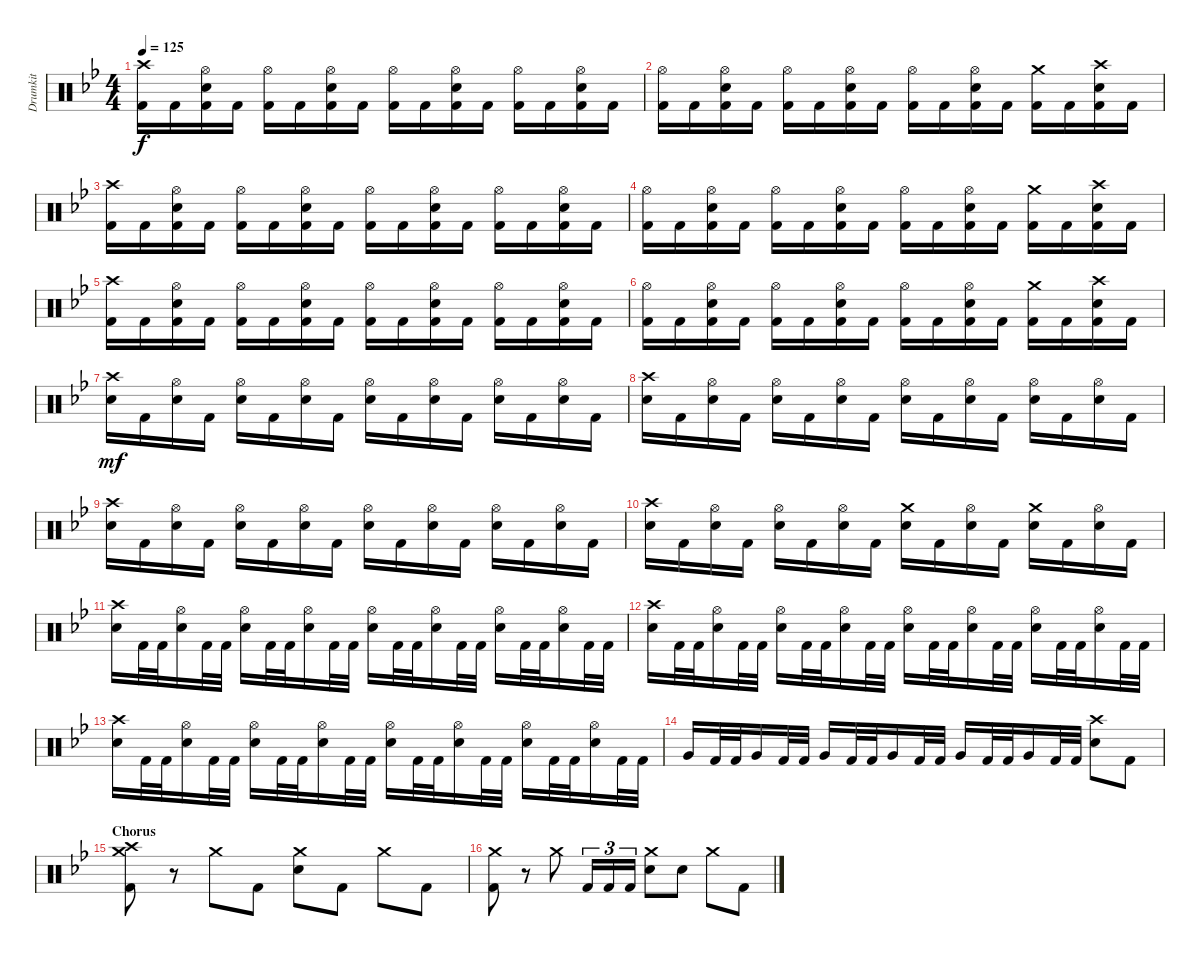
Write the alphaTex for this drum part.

\track ("Drumkit" "Drumkit") {instrument percussion}
\staff {score}
\articulation defaults
\ts (4 4)
\tempo 125
\clef neutral
\ks bb
("Crash high (hit)" "Kick (hit) 2").16{dy f} "Kick (hit) 2".16 ("Hi-Hat (open)" "Snare (hit) 2" "Kick (hit) 2").16 "Kick (hit) 2".16 ("Hi-Hat (open)" "Kick (hit) 2").16 "Kick (hit) 2".16 ("Hi-Hat (open)" "Snare (hit) 2" "Kick (hit) 2").16 "Kick (hit) 2".16 ("Hi-Hat (open)" "Kick (hit) 2").16 "Kick (hit) 2".16 ("Hi-Hat (open)" "Snare (hit) 2" "Kick (hit) 2").16 "Kick (hit) 2".16 ("Hi-Hat (open)" "Kick (hit) 2").16 "Kick (hit) 2".16 ("Hi-Hat (open)" "Snare (hit) 2" "Kick (hit) 2").16 "Kick (hit) 2".16 |
("Hi-Hat (open)" "Kick (hit) 2").16 "Kick (hit) 2".16 ("Hi-Hat (open)" "Snare (hit) 2" "Kick (hit) 2").16 "Kick (hit) 2".16 ("Hi-Hat (open)" "Kick (hit) 2").16 "Kick (hit) 2".16 ("Hi-Hat (open)" "Snare (hit) 2" "Kick (hit) 2").16 "Kick (hit) 2".16 ("Hi-Hat (open)" "Kick (hit) 2").16 "Kick (hit) 2".16 ("Hi-Hat (open)" "Snare (hit) 2" "Kick (hit) 2").16 "Kick (hit) 2".16 ("Crash medium (hit)" "Kick (hit) 2").16 "Kick (hit) 2".16 ("Crash high (hit)" "Snare (hit) 2" "Kick (hit) 2").16 "Kick (hit) 2".16 |
("Crash high (hit)" "Kick (hit) 2").16 "Kick (hit) 2".16 ("Hi-Hat (open)" "Snare (hit) 2" "Kick (hit) 2").16 "Kick (hit) 2".16 ("Hi-Hat (open)" "Kick (hit) 2").16 "Kick (hit) 2".16 ("Hi-Hat (open)" "Snare (hit) 2" "Kick (hit) 2").16 "Kick (hit) 2".16 ("Hi-Hat (open)" "Kick (hit) 2").16 "Kick (hit) 2".16 ("Hi-Hat (open)" "Snare (hit) 2" "Kick (hit) 2").16 "Kick (hit) 2".16 ("Hi-Hat (open)" "Kick (hit) 2").16 "Kick (hit) 2".16 ("Hi-Hat (open)" "Snare (hit) 2" "Kick (hit) 2").16 "Kick (hit) 2".16 |
("Hi-Hat (open)" "Kick (hit) 2").16 "Kick (hit) 2".16 ("Hi-Hat (open)" "Snare (hit) 2" "Kick (hit) 2").16 "Kick (hit) 2".16 ("Hi-Hat (open)" "Kick (hit) 2").16 "Kick (hit) 2".16 ("Hi-Hat (open)" "Snare (hit) 2" "Kick (hit) 2").16 "Kick (hit) 2".16 ("Hi-Hat (open)" "Kick (hit) 2").16 "Kick (hit) 2".16 ("Hi-Hat (open)" "Snare (hit) 2" "Kick (hit) 2").16 "Kick (hit) 2".16 ("Crash medium (hit)" "Kick (hit) 2").16 "Kick (hit) 2".16 ("Crash high (hit)" "Snare (hit) 2" "Kick (hit) 2").16 "Kick (hit) 2".16 |
("Crash high (hit)" "Kick (hit) 2").16 "Kick (hit) 2".16 ("Hi-Hat (open)" "Snare (hit) 2" "Kick (hit) 2").16 "Kick (hit) 2".16 ("Hi-Hat (open)" "Kick (hit) 2").16 "Kick (hit) 2".16 ("Hi-Hat (open)" "Snare (hit) 2" "Kick (hit) 2").16 "Kick (hit) 2".16 ("Hi-Hat (open)" "Kick (hit) 2").16 "Kick (hit) 2".16 ("Hi-Hat (open)" "Snare (hit) 2" "Kick (hit) 2").16 "Kick (hit) 2".16 ("Hi-Hat (open)" "Kick (hit) 2").16 "Kick (hit) 2".16 ("Hi-Hat (open)" "Snare (hit) 2" "Kick (hit) 2").16 "Kick (hit) 2".16 |
("Hi-Hat (open)" "Kick (hit) 2").16 "Kick (hit) 2".16 ("Hi-Hat (open)" "Snare (hit) 2" "Kick (hit) 2").16 "Kick (hit) 2".16 ("Hi-Hat (open)" "Kick (hit) 2").16 "Kick (hit) 2".16 ("Hi-Hat (open)" "Snare (hit) 2" "Kick (hit) 2").16 "Kick (hit) 2".16 ("Hi-Hat (open)" "Kick (hit) 2").16 "Kick (hit) 2".16 ("Hi-Hat (open)" "Snare (hit) 2" "Kick (hit) 2").16 "Kick (hit) 2".16 ("Crash medium (hit)" "Kick (hit) 2").16 "Kick (hit) 2".16 ("Crash high (hit)" "Snare (hit) 2" "Kick (hit) 2").16 "Kick (hit) 2".16 |
("Crash high (hit)" "Snare (hit) 2").16{dy mf} "Kick (hit) 2".16 ("Hi-Hat (open)" "Snare (hit) 2").16 "Kick (hit) 2".16 ("Hi-Hat (open)" "Snare (hit) 2").16 "Kick (hit) 2".16 ("Hi-Hat (open)" "Snare (hit) 2").16 "Kick (hit) 2".16 ("Hi-Hat (open)" "Snare (hit) 2").16 "Kick (hit) 2".16 ("Hi-Hat (open)" "Snare (hit) 2").16 "Kick (hit) 2".16 ("Hi-Hat (open)" "Snare (hit) 2").16 "Kick (hit) 2".16 ("Hi-Hat (open)" "Snare (hit) 2").16 "Kick (hit) 2".16 |
("Crash high (hit)" "Snare (hit) 2").16 "Kick (hit) 2".16 ("Hi-Hat (open)" "Snare (hit) 2").16 "Kick (hit) 2".16 ("Hi-Hat (open)" "Snare (hit) 2").16 "Kick (hit) 2".16 ("Hi-Hat (open)" "Snare (hit) 2").16 "Kick (hit) 2".16 ("Hi-Hat (open)" "Snare (hit) 2").16 "Kick (hit) 2".16 ("Hi-Hat (open)" "Snare (hit) 2").16 "Kick (hit) 2".16 ("Hi-Hat (open)" "Snare (hit) 2").16 "Kick (hit) 2".16 ("Hi-Hat (open)" "Snare (hit) 2").16 "Kick (hit) 2".16 |
("Crash high (hit)" "Snare (hit) 2").16 "Kick (hit) 2".16 ("Hi-Hat (open)" "Snare (hit) 2").16 "Kick (hit) 2".16 ("Hi-Hat (open)" "Snare (hit) 2").16 "Kick (hit) 2".16 ("Hi-Hat (open)" "Snare (hit) 2").16 "Kick (hit) 2".16 ("Hi-Hat (open)" "Snare (hit) 2").16 "Kick (hit) 2".16 ("Hi-Hat (open)" "Snare (hit) 2").16 "Kick (hit) 2".16 ("Hi-Hat (open)" "Snare (hit) 2").16 "Kick (hit) 2".16 ("Hi-Hat (open)" "Snare (hit) 2").16 "Kick (hit) 2".16 |
("Crash high (hit)" "Snare (hit) 2").16 "Kick (hit) 2".16 ("Hi-Hat (open)" "Snare (hit) 2").16 "Kick (hit) 2".16 ("Hi-Hat (open)" "Snare (hit) 2").16 "Kick (hit) 2".16 ("Hi-Hat (open)" "Snare (hit) 2").16 "Kick (hit) 2".16 ("Crash medium (hit)" "Snare (hit) 2").16 "Kick (hit) 2".16 ("Hi-Hat (open)" "Snare (hit) 2").16 "Kick (hit) 2".16 ("Crash medium (hit)" "Snare (hit) 2").16 "Kick (hit) 2".16 ("Hi-Hat (open)" "Snare (hit) 2").16 "Kick (hit) 2".16 |
("Crash high (hit)" "Snare (hit) 2").16 "Kick (hit) 2".32 "Kick (hit) 2".32 ("Hi-Hat (open)" "Snare (hit) 2").16 "Kick (hit) 2".32 "Kick (hit) 2".32 ("Hi-Hat (open)" "Snare (hit) 2").16 "Kick (hit) 2".32 "Kick (hit) 2".32 ("Hi-Hat (open)" "Snare (hit) 2").16 "Kick (hit) 2".32 "Kick (hit) 2".32 ("Hi-Hat (open)" "Snare (hit) 2").16 "Kick (hit) 2".32 "Kick (hit) 2".32 ("Hi-Hat (open)" "Snare (hit) 2").16 "Kick (hit) 2".32 "Kick (hit) 2".32 ("Hi-Hat (open)" "Snare (hit) 2").16 "Kick (hit) 2".32 "Kick (hit) 2".32 ("Hi-Hat (open)" "Snare (hit) 2").16 "Kick (hit) 2".32 "Kick (hit) 2".32 |
("Crash high (hit)" "Snare (hit) 2").16 "Kick (hit) 2".32 "Kick (hit) 2".32 ("Hi-Hat (open)" "Snare (hit) 2").16 "Kick (hit) 2".32 "Kick (hit) 2".32 ("Hi-Hat (open)" "Snare (hit) 2").16 "Kick (hit) 2".32 "Kick (hit) 2".32 ("Hi-Hat (open)" "Snare (hit) 2").16 "Kick (hit) 2".32 "Kick (hit) 2".32 ("Hi-Hat (open)" "Snare (hit) 2").16 "Kick (hit) 2".32 "Kick (hit) 2".32 ("Hi-Hat (open)" "Snare (hit) 2").16 "Kick (hit) 2".32 "Kick (hit) 2".32 ("Hi-Hat (open)" "Snare (hit) 2").16 "Kick (hit) 2".32 "Kick (hit) 2".32 ("Hi-Hat (open)" "Snare (hit) 2").16 "Kick (hit) 2".32 "Kick (hit) 2".32 |
("Crash high (hit)" "Snare (hit) 2").16 "Kick (hit) 2".32 "Kick (hit) 2".32 ("Hi-Hat (open)" "Snare (hit) 2").16 "Kick (hit) 2".32 "Kick (hit) 2".32 ("Hi-Hat (open)" "Snare (hit) 2").16 "Kick (hit) 2".32 "Kick (hit) 2".32 ("Hi-Hat (open)" "Snare (hit) 2").16 "Kick (hit) 2".32 "Kick (hit) 2".32 ("Hi-Hat (open)" "Snare (hit) 2").16 "Kick (hit) 2".32 "Kick (hit) 2".32 ("Hi-Hat (open)" "Snare (hit) 2").16 "Kick (hit) 2".32 "Kick (hit) 2".32 ("Hi-Hat (open)" "Snare (hit) 2").16 "Kick (hit) 2".32 "Kick (hit) 2".32 ("Hi-Hat (open)" "Snare (hit) 2").16 "Kick (hit) 2".32 "Kick (hit) 2".32 |
"Very Low Tom (hit)".16 "Kick (hit) 2".32 "Kick (hit) 2".32 "Very Low Tom (hit)".16 "Kick (hit) 2".32 "Kick (hit) 2".32 "Very Low Tom (hit)".16 "Kick (hit) 2".32 "Kick (hit) 2".32 "Very Low Tom (hit)".16 "Kick (hit) 2".32 "Kick (hit) 2".32 "Very Low Tom (hit)".16 "Kick (hit) 2".32 "Kick (hit) 2".32 "Very Low Tom (hit)".16 "Kick (hit) 2".32 "Kick (hit) 2".32 ("Crash high (hit)" "Snare (hit) 2").8 "Kick (hit) 2".8 |
\section ("" "Chorus")
("Crash high (hit)" "Crash medium (hit)" "Kick (hit) 2").8 r.8 "Crash medium (hit)".8 "Kick (hit) 2".8 ("Crash medium (hit)" "Snare (hit) 2").8 "Kick (hit) 2".8 "Crash medium (hit)".8 "Kick (hit) 2".8 |
("Crash medium (hit)" "Kick (hit) 2").8 r.8 "Crash medium (hit)".8 "Kick (hit) 2".16{tu (3 2)} "Kick (hit) 2".16{tu (3 2)} "Kick (hit) 2".16{tu (3 2)} ("Crash medium (hit)" "Snare (hit) 2").8 "Snare (hit) 2".8 "Crash medium (hit)".8 "Kick (hit) 2".8
